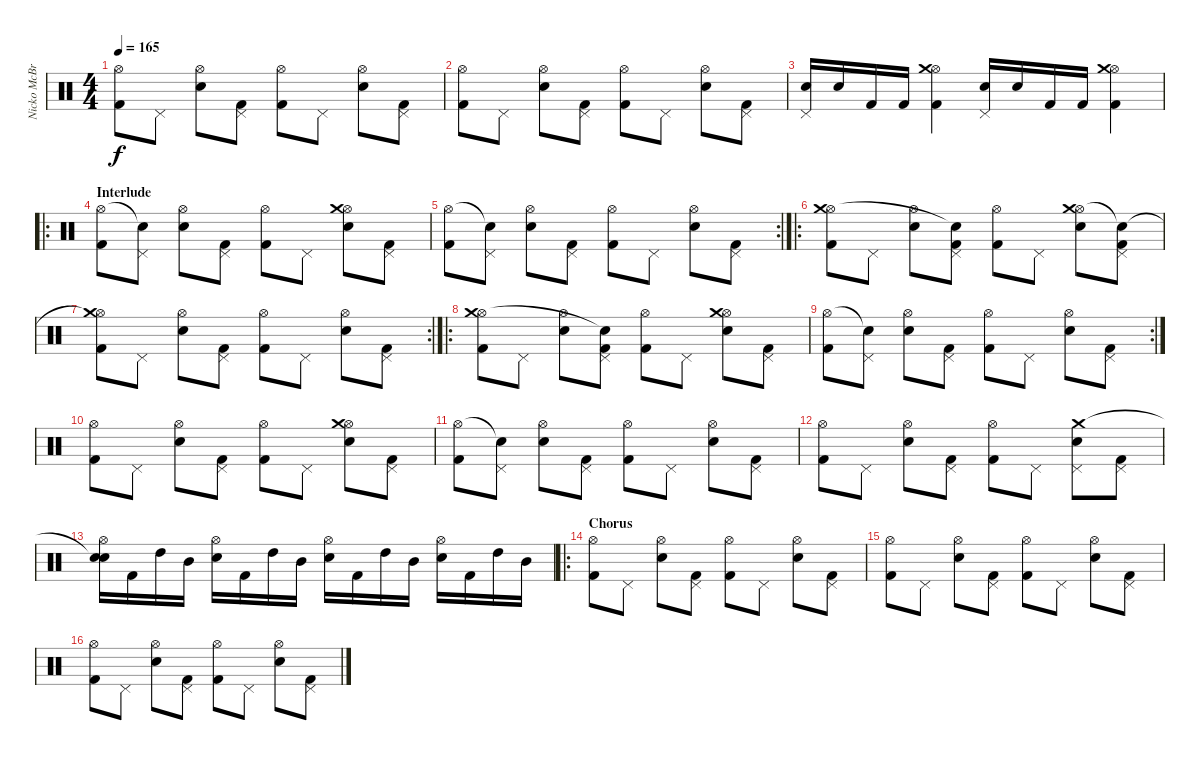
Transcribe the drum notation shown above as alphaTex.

\track ("Nicko McBrain" "Nicko McBr") {instrument percussion}
\staff {score}
\articulation defaults
\ts (4 4)
\tempo 165
\clef neutral
\ks c
("Kick (hit) 2" "Hi-Hat (open)").8{dy f} "Pedal Hi-Hat (hit)".8 ("Snare (hit) 2" "Hi-Hat (open)").8 ("Kick (hit) 2" "Pedal Hi-Hat (hit)").8 ("Kick (hit) 2" "Hi-Hat (open)").8 "Pedal Hi-Hat (hit)".8 ("Snare (hit) 2" "Hi-Hat (open)").8 ("Kick (hit) 2" "Pedal Hi-Hat (hit)").8 |
("Kick (hit) 2" "Hi-Hat (open)").8 "Pedal Hi-Hat (hit)".8 ("Snare (hit) 2" "Hi-Hat (open)").8 ("Kick (hit) 2" "Pedal Hi-Hat (hit)").8 ("Kick (hit) 2" "Hi-Hat (open)").8 "Pedal Hi-Hat (hit)".8 ("Snare (hit) 2" "Hi-Hat (open)").8 ("Kick (hit) 2" "Pedal Hi-Hat (hit)").8 |
("Snare (hit) 2" "Pedal Hi-Hat (hit)").16 "Snare (hit) 2".16 "Kick (hit) 2".16 "Kick (hit) 2".16 ("Kick (hit) 2" "Hi-Hat (open)" "Crash medium (hit)").4 ("Snare (hit) 2" "Pedal Hi-Hat (hit)").16 "Snare (hit) 2".16 "Kick (hit) 2".16 "Kick (hit) 2".16 ("Kick (hit) 2" "Hi-Hat (open)" "Crash medium (hit)").4 |
\ro
\section ("" "Interlude")
("Kick (hit) 2" "Hi-Hat (open)").8 ("Pedal Hi-Hat (hit)" "Snare (hit)"{t}).8 ("Snare (hit) 2" "Hi-Hat (open)").8 ("Kick (hit) 2" "Pedal Hi-Hat (hit)").8 ("Kick (hit) 2" "Hi-Hat (open)").8 "Pedal Hi-Hat (hit)".8 ("Snare (hit) 2" "Hi-Hat (open)" "Crash medium (hit)").8 ("Kick (hit) 2" "Pedal Hi-Hat (hit)").8 |
\rc 2
("Kick (hit) 2" "Hi-Hat (open)").8 ("Pedal Hi-Hat (hit)" "Snare (hit)"{t}).8 ("Snare (hit) 2" "Hi-Hat (open)").8 ("Kick (hit) 2" "Pedal Hi-Hat (hit)").8 ("Kick (hit) 2" "Hi-Hat (open)").8 "Pedal Hi-Hat (hit)".8 ("Snare (hit) 2" "Hi-Hat (open)").8 ("Kick (hit) 2" "Pedal Hi-Hat (hit)").8 |
\ro
("Kick (hit) 2" "Hi-Hat (open)" "Crash medium (hit)").8 "Pedal Hi-Hat (hit)".8 ("Snare (hit) 2" "Hi-Hat (open)").8 ("Kick (hit) 2" "Pedal Hi-Hat (hit)" "Snare (hit)"{t}).8 ("Kick (hit) 2" "Hi-Hat (open)").8 "Pedal Hi-Hat (hit)".8 ("Snare (hit) 2" "Hi-Hat (open)" "Crash medium (hit)").8 ("Kick (hit) 2" "Pedal Hi-Hat (hit)" "Snare (hit)"{t}).8 |
\rc 2
("Kick (hit) 2" "Hi-Hat (open)" "Crash medium (hit)"{t}).8 "Pedal Hi-Hat (hit)".8 ("Snare (hit) 2" "Hi-Hat (open)").8 ("Kick (hit) 2" "Pedal Hi-Hat (hit)").8 ("Kick (hit) 2" "Hi-Hat (open)").8 "Pedal Hi-Hat (hit)".8 ("Snare (hit) 2" "Hi-Hat (open)").8 ("Kick (hit) 2" "Pedal Hi-Hat (hit)").8 |
\ro
("Kick (hit) 2" "Hi-Hat (open)" "Crash medium (hit)").8 "Pedal Hi-Hat (hit)".8 ("Snare (hit) 2" "Hi-Hat (open)").8 ("Kick (hit) 2" "Pedal Hi-Hat (hit)" "Snare (hit)"{t}).8 ("Kick (hit) 2" "Hi-Hat (open)").8 "Pedal Hi-Hat (hit)".8 ("Snare (hit) 2" "Hi-Hat (open)" "Crash medium (hit)").8 ("Kick (hit) 2" "Pedal Hi-Hat (hit)").8 |
\rc 2
("Kick (hit) 2" "Hi-Hat (open)").8 ("Pedal Hi-Hat (hit)" "Snare (hit)"{t}).8 ("Snare (hit) 2" "Hi-Hat (open)").8 ("Kick (hit) 2" "Pedal Hi-Hat (hit)").8 ("Kick (hit) 2" "Hi-Hat (open)").8 "Pedal Hi-Hat (hit)".8 ("Snare (hit) 2" "Hi-Hat (open)").8 ("Kick (hit) 2" "Pedal Hi-Hat (hit)").8 |
("Kick (hit) 2" "Hi-Hat (open)").8 "Pedal Hi-Hat (hit)".8 ("Snare (hit) 2" "Hi-Hat (open)").8 ("Kick (hit) 2" "Pedal Hi-Hat (hit)").8 ("Kick (hit) 2" "Hi-Hat (open)").8 "Pedal Hi-Hat (hit)".8 ("Snare (hit) 2" "Hi-Hat (open)" "Crash medium (hit)").8 ("Kick (hit) 2" "Pedal Hi-Hat (hit)").8 |
("Kick (hit) 2" "Hi-Hat (open)").8 ("Pedal Hi-Hat (hit)" "Snare (hit)"{t}).8 ("Snare (hit) 2" "Hi-Hat (open)").8 ("Kick (hit) 2" "Pedal Hi-Hat (hit)").8 ("Kick (hit) 2" "Hi-Hat (open)").8 "Pedal Hi-Hat (hit)".8 ("Snare (hit) 2" "Hi-Hat (open)").8 ("Kick (hit) 2" "Pedal Hi-Hat (hit)").8 |
("Kick (hit) 2" "Hi-Hat (open)").8 "Pedal Hi-Hat (hit)".8 ("Snare (hit) 2" "Hi-Hat (open)").8 ("Kick (hit) 2" "Pedal Hi-Hat (hit)").8 ("Kick (hit) 2" "Hi-Hat (open)").8 "Pedal Hi-Hat (hit)".8 ("Snare (hit) 2" "Pedal Hi-Hat (hit)" "Crash medium (hit)").8 ("Kick (hit) 2" "Pedal Hi-Hat (hit)").8 |
("Snare (hit) 2" "Hi-Hat (open)" "Snare (hit)"{t}).16 "Kick (hit) 2".16 "High Tom (hit)".16 "Mid Tom (hit)".16 ("Snare (hit) 2" "Hi-Hat (open)").16 "Kick (hit) 2".16 "High Tom (hit)".16 "Mid Tom (hit)".16 ("Snare (hit) 2" "Hi-Hat (open)").16 "Kick (hit) 2".16 "High Tom (hit)".16 "Mid Tom (hit)".16 ("Snare (hit) 2" "Hi-Hat (open)").16 "Kick (hit) 2".16 "High Tom (hit)".16 "Mid Tom (hit)".16 |
\ro
\section ("" "Chorus")
("Kick (hit) 2" "Hi-Hat (open)").8 "Pedal Hi-Hat (hit)".8 ("Snare (hit) 2" "Hi-Hat (open)").8 ("Kick (hit) 2" "Pedal Hi-Hat (hit)").8 ("Kick (hit) 2" "Hi-Hat (open)").8 "Pedal Hi-Hat (hit)".8 ("Snare (hit) 2" "Hi-Hat (open)").8 ("Kick (hit) 2" "Pedal Hi-Hat (hit)").8 |
("Kick (hit) 2" "Hi-Hat (open)").8 "Pedal Hi-Hat (hit)".8 ("Snare (hit) 2" "Hi-Hat (open)").8 ("Kick (hit) 2" "Pedal Hi-Hat (hit)").8 ("Kick (hit) 2" "Hi-Hat (open)").8 "Pedal Hi-Hat (hit)".8 ("Snare (hit) 2" "Hi-Hat (open)").8 ("Kick (hit) 2" "Pedal Hi-Hat (hit)").8 |
("Kick (hit) 2" "Hi-Hat (open)").8 "Pedal Hi-Hat (hit)".8 ("Snare (hit) 2" "Hi-Hat (open)").8 ("Kick (hit) 2" "Pedal Hi-Hat (hit)").8 ("Kick (hit) 2" "Hi-Hat (open)").8 "Pedal Hi-Hat (hit)".8 ("Snare (hit) 2" "Hi-Hat (open)").8 ("Kick (hit) 2" "Pedal Hi-Hat (hit)").8
